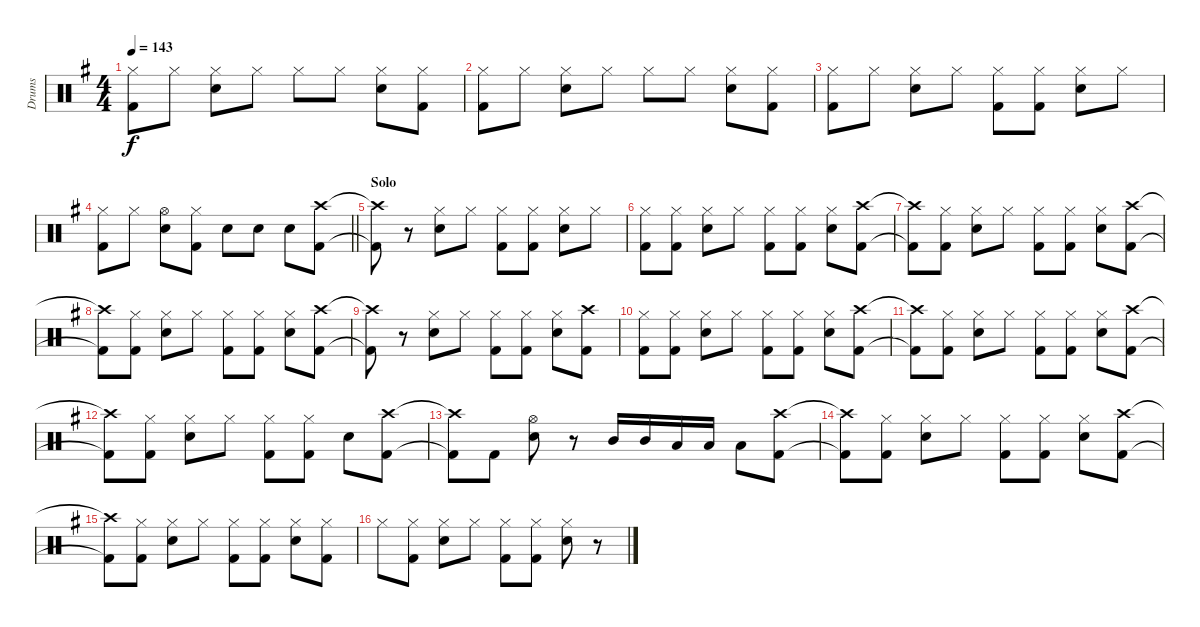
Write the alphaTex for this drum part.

\track ("Drums" "Drums") {instrument percussion}
\staff {score}
\articulation defaults
\ts (4 4)
\tempo 143
\clef neutral
\ks g
("Hi-Hat (closed)" "Kick (hit) 2").8{dy f} "Hi-Hat (closed)".8 ("Hi-Hat (closed)" "Electric Snare (hit)").8 "Hi-Hat (closed)".8 "Hi-Hat (closed)".8 "Hi-Hat (closed)".8 ("Hi-Hat (closed)" "Electric Snare (hit)").8 ("Hi-Hat (closed)" "Kick (hit) 2").8 |
("Hi-Hat (closed)" "Kick (hit) 2").8 "Hi-Hat (closed)".8 ("Hi-Hat (closed)" "Electric Snare (hit)").8 "Hi-Hat (closed)".8 "Hi-Hat (closed)".8 "Hi-Hat (closed)".8 ("Hi-Hat (closed)" "Electric Snare (hit)").8 ("Hi-Hat (closed)" "Kick (hit) 2").8 |
("Hi-Hat (closed)" "Kick (hit) 2").8 "Hi-Hat (closed)".8 ("Hi-Hat (closed)" "Electric Snare (hit)").8 "Hi-Hat (closed)".8 ("Hi-Hat (closed)" "Kick (hit) 2").8 ("Hi-Hat (closed)" "Kick (hit) 2").8 ("Hi-Hat (closed)" "Electric Snare (hit)").8 "Hi-Hat (closed)".8 |
\barLineRight lightlight
("Hi-Hat (closed)" "Kick (hit) 2").8 "Hi-Hat (closed)".8 ("Hi-Hat (open)" "Electric Snare (hit)").8 ("Hi-Hat (closed)" "Kick (hit) 2").8 "Electric Snare (hit)".8 "Electric Snare (hit)".8 "Electric Snare (hit)".8 ("Crash high (hit)" "Kick (hit) 2").8 |
\section ("" "Solo")
("Crash high (hit)"{t} "Kick (hit) 2"{t}).8 r.8 ("Hi-Hat (closed)" "Electric Snare (hit)").8 "Hi-Hat (closed)".8 ("Hi-Hat (closed)" "Kick (hit) 2").8 ("Hi-Hat (closed)" "Kick (hit) 2").8 ("Hi-Hat (closed)" "Electric Snare (hit)").8 "Hi-Hat (closed)".8 |
("Hi-Hat (closed)" "Kick (hit) 2").8 ("Hi-Hat (closed)" "Kick (hit) 2").8 ("Hi-Hat (closed)" "Electric Snare (hit)").8 "Hi-Hat (closed)".8 ("Hi-Hat (closed)" "Kick (hit) 2").8 ("Hi-Hat (closed)" "Kick (hit) 2").8 ("Hi-Hat (closed)" "Electric Snare (hit)").8 ("Crash high (hit)" "Kick (hit) 2").8 |
("Crash high (hit)"{t} "Kick (hit) 2"{t}).8 ("Hi-Hat (closed)" "Kick (hit) 2").8 ("Hi-Hat (closed)" "Electric Snare (hit)").8 "Hi-Hat (closed)".8 ("Hi-Hat (closed)" "Kick (hit) 2").8 ("Hi-Hat (closed)" "Kick (hit) 2").8 ("Hi-Hat (closed)" "Electric Snare (hit)").8 ("Crash high (hit)" "Kick (hit) 2").8 |
("Crash high (hit)"{t} "Kick (hit) 2"{t}).8 ("Hi-Hat (closed)" "Kick (hit) 2").8 ("Hi-Hat (closed)" "Electric Snare (hit)").8 "Hi-Hat (closed)".8 ("Hi-Hat (closed)" "Kick (hit) 2").8 ("Hi-Hat (closed)" "Kick (hit) 2").8 ("Hi-Hat (closed)" "Electric Snare (hit)").8 ("Crash high (hit)" "Kick (hit) 2").8 |
("Crash high (hit)"{t} "Kick (hit) 2"{t}).8 r.8 ("Hi-Hat (closed)" "Electric Snare (hit)").8 "Hi-Hat (closed)".8 ("Hi-Hat (closed)" "Kick (hit) 2").8 ("Hi-Hat (closed)" "Kick (hit) 2").8 ("Hi-Hat (closed)" "Electric Snare (hit)").8 ("Crash high (hit)" "Kick (hit) 2").8 |
("Hi-Hat (closed)" "Kick (hit) 2").8 ("Hi-Hat (closed)" "Kick (hit) 2").8 ("Hi-Hat (closed)" "Electric Snare (hit)").8 "Hi-Hat (closed)".8 ("Hi-Hat (closed)" "Kick (hit) 2").8 ("Hi-Hat (closed)" "Kick (hit) 2").8 ("Hi-Hat (closed)" "Electric Snare (hit)").8 ("Crash high (hit)" "Kick (hit) 2").8 |
("Crash high (hit)"{t} "Kick (hit) 2"{t}).8 ("Hi-Hat (closed)" "Kick (hit) 2").8 ("Hi-Hat (closed)" "Electric Snare (hit)").8 "Hi-Hat (closed)".8 ("Hi-Hat (closed)" "Kick (hit) 2").8 ("Hi-Hat (closed)" "Kick (hit) 2").8 ("Hi-Hat (closed)" "Electric Snare (hit)").8 ("Crash high (hit)" "Kick (hit) 2").8 |
("Crash high (hit)"{t} "Kick (hit) 2"{t}).8 ("Hi-Hat (closed)" "Kick (hit) 2").8 ("Hi-Hat (closed)" "Electric Snare (hit)").8 "Hi-Hat (closed)".8 ("Hi-Hat (closed)" "Kick (hit) 2").8 ("Hi-Hat (closed)" "Kick (hit) 2").8 "Electric Snare (hit)".8 ("Crash high (hit)" "Kick (hit) 2").8 |
("Crash high (hit)"{t} "Kick (hit) 2"{t}).8 "Kick (hit) 2".8 ("Hi-Hat (open)" "Electric Snare (hit)").8 r.8 "Mid Tom (hit)".16 "Mid Tom (hit)".16 "Low Tom (hit)".16 "Low Tom (hit)".16 "Low Tom (hit)".8 ("Crash high (hit)" "Kick (hit) 2").8 |
("Crash high (hit)"{t} "Kick (hit) 2"{t}).8 ("Hi-Hat (closed)" "Kick (hit) 2").8 ("Hi-Hat (closed)" "Electric Snare (hit)").8 "Hi-Hat (closed)".8 ("Hi-Hat (closed)" "Kick (hit) 2").8 ("Hi-Hat (closed)" "Kick (hit) 2").8 ("Hi-Hat (closed)" "Electric Snare (hit)").8 ("Crash high (hit)" "Kick (hit) 2").8 |
("Crash high (hit)"{t} "Kick (hit) 2"{t}).8 ("Hi-Hat (closed)" "Kick (hit) 2").8 ("Hi-Hat (closed)" "Electric Snare (hit)").8 "Hi-Hat (closed)".8 ("Hi-Hat (closed)" "Kick (hit) 2").8 ("Hi-Hat (closed)" "Kick (hit) 2").8 ("Hi-Hat (closed)" "Electric Snare (hit)").8 ("Hi-Hat (closed)" "Kick (hit) 2").8 |
"Hi-Hat (closed)".8 ("Hi-Hat (closed)" "Kick (hit) 2").8 ("Hi-Hat (closed)" "Electric Snare (hit)").8 "Hi-Hat (closed)".8 ("Hi-Hat (closed)" "Kick (hit) 2").8 ("Hi-Hat (closed)" "Kick (hit) 2").8 ("Hi-Hat (closed)" "Electric Snare (hit)").8 r.8
